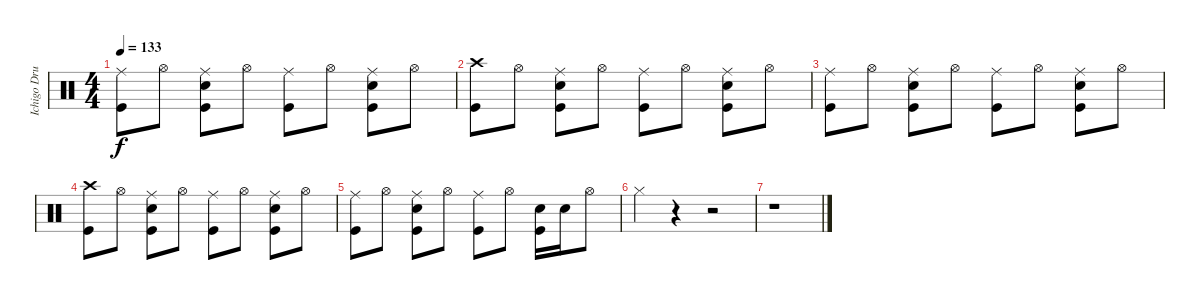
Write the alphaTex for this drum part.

\track ("Ichigo Drums" "Ichigo Dru") {instrument percussion}
\staff {score}
\articulation defaults
\ts (4 4)
\tempo 133
\clef neutral
\ks c
("Ride (middle)" "Kick (hit)").8{dy f} "Hi-Hat (open)".8 ("Ride (middle)" "Snare (hit) 2" "Kick (hit)").8 "Hi-Hat (open)".8 ("Ride (middle)" "Kick (hit)").8 "Hi-Hat (open)".8 ("Ride (middle)" "Snare (hit) 2" "Kick (hit)").8 "Hi-Hat (open)".8 |
("Crash high (hit)" "Kick (hit)").8 "Hi-Hat (open)".8 ("Ride (middle)" "Snare (hit) 2" "Kick (hit)").8 "Hi-Hat (open)".8 ("Ride (middle)" "Kick (hit)").8 "Hi-Hat (open)".8 ("Ride (middle)" "Snare (hit) 2" "Kick (hit)").8 "Hi-Hat (open)".8 |
("Ride (middle)" "Kick (hit)").8 "Hi-Hat (open)".8 ("Ride (middle)" "Snare (hit) 2" "Kick (hit)").8 "Hi-Hat (open)".8 ("Ride (middle)" "Kick (hit)").8 "Hi-Hat (open)".8 ("Ride (middle)" "Snare (hit) 2" "Kick (hit)").8 "Hi-Hat (open)".8 |
("Crash high (hit)" "Kick (hit)").8 "Hi-Hat (open)".8 ("Ride (middle)" "Snare (hit) 2" "Kick (hit)").8 "Hi-Hat (open)".8 ("Ride (middle)" "Kick (hit)").8 "Hi-Hat (open)".8 ("Ride (middle)" "Snare (hit) 2" "Kick (hit)").8 "Hi-Hat (open)".8 |
("Ride (middle)" "Kick (hit)").8 "Hi-Hat (open)".8 ("Ride (middle)" "Snare (hit) 2" "Kick (hit)").8 "Hi-Hat (open)".8 ("Ride (middle)" "Kick (hit)").8 "Hi-Hat (open)".8 ("Snare (hit) 2" "Kick (hit)").16 "Snare (hit) 2".16 "Hi-Hat (open)".8 |
"Hi-Hat (closed)".4 r.4 r.2 |
r.1
